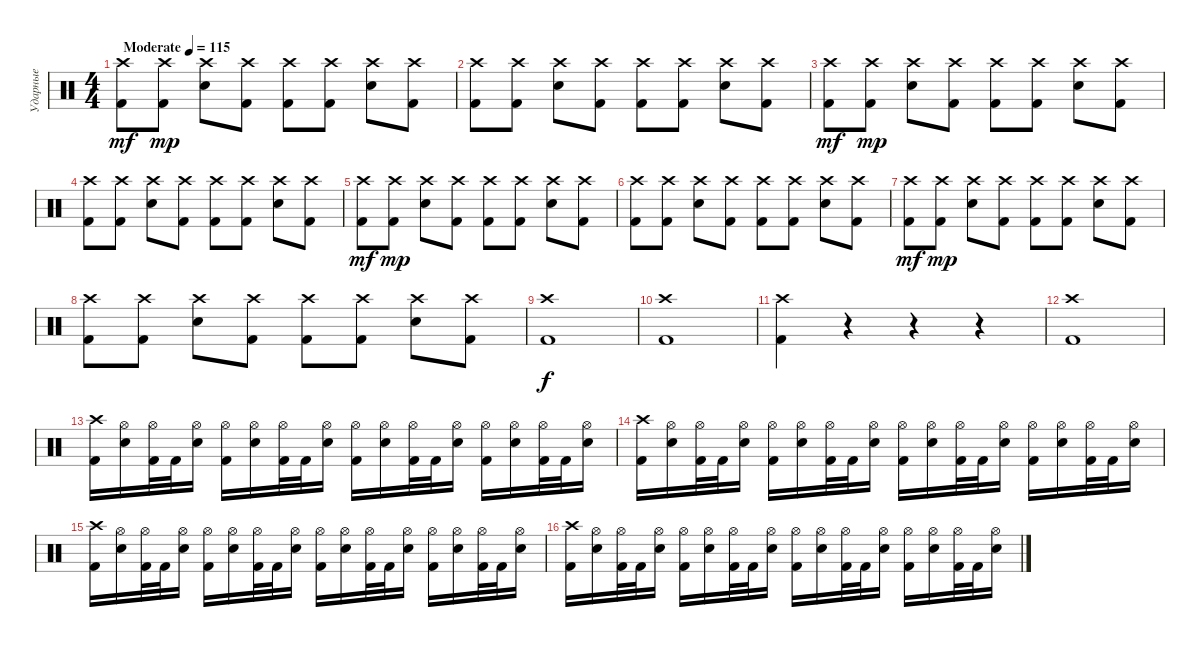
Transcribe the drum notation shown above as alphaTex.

\track ("Ударные" "Ударные") {instrument percussion}
\staff {score}
\articulation defaults
\ts (4 4)
\tempo (115 "Moderate")
\clef neutral
\ks c
("Crash high (hit)" "Kick (hit) 2").8{dy mf} ("Crash high (hit)" "Kick (hit) 2").8{dy mp} ("Crash high (hit)" "Electric Snare (hit)").8 ("Crash high (hit)" "Kick (hit) 2").8 ("Crash high (hit)" "Kick (hit) 2").8 ("Crash high (hit)" "Kick (hit) 2").8 ("Crash high (hit)" "Electric Snare (hit)").8 ("Crash high (hit)" "Kick (hit) 2").8 |
("Crash high (hit)" "Kick (hit) 2").8 ("Crash high (hit)" "Kick (hit) 2").8 ("Crash high (hit)" "Electric Snare (hit)").8 ("Crash high (hit)" "Kick (hit) 2").8 ("Crash high (hit)" "Kick (hit) 2").8 ("Crash high (hit)" "Kick (hit) 2").8 ("Crash high (hit)" "Electric Snare (hit)").8 ("Crash high (hit)" "Kick (hit) 2").8 |
("Crash high (hit)" "Kick (hit) 2").8{dy mf} ("Crash high (hit)" "Kick (hit) 2").8{dy mp} ("Crash high (hit)" "Electric Snare (hit)").8 ("Crash high (hit)" "Kick (hit) 2").8 ("Crash high (hit)" "Kick (hit) 2").8 ("Crash high (hit)" "Kick (hit) 2").8 ("Crash high (hit)" "Electric Snare (hit)").8 ("Crash high (hit)" "Kick (hit) 2").8 |
("Crash high (hit)" "Kick (hit) 2").8 ("Crash high (hit)" "Kick (hit) 2").8 ("Crash high (hit)" "Electric Snare (hit)").8 ("Crash high (hit)" "Kick (hit) 2").8 ("Crash high (hit)" "Kick (hit) 2").8 ("Crash high (hit)" "Kick (hit) 2").8 ("Crash high (hit)" "Electric Snare (hit)").8 ("Crash high (hit)" "Kick (hit) 2").8 |
("Crash high (hit)" "Kick (hit) 2").8{dy mf} ("Crash high (hit)" "Kick (hit) 2").8{dy mp} ("Crash high (hit)" "Electric Snare (hit)").8 ("Crash high (hit)" "Kick (hit) 2").8 ("Crash high (hit)" "Kick (hit) 2").8 ("Crash high (hit)" "Kick (hit) 2").8 ("Crash high (hit)" "Electric Snare (hit)").8 ("Crash high (hit)" "Kick (hit) 2").8 |
("Crash high (hit)" "Kick (hit) 2").8 ("Crash high (hit)" "Kick (hit) 2").8 ("Crash high (hit)" "Electric Snare (hit)").8 ("Crash high (hit)" "Kick (hit) 2").8 ("Crash high (hit)" "Kick (hit) 2").8 ("Crash high (hit)" "Kick (hit) 2").8 ("Crash high (hit)" "Electric Snare (hit)").8 ("Crash high (hit)" "Kick (hit) 2").8 |
("Crash high (hit)" "Kick (hit) 2").8{dy mf} ("Crash high (hit)" "Kick (hit) 2").8{dy mp} ("Crash high (hit)" "Electric Snare (hit)").8 ("Crash high (hit)" "Kick (hit) 2").8 ("Crash high (hit)" "Kick (hit) 2").8 ("Crash high (hit)" "Kick (hit) 2").8 ("Crash high (hit)" "Electric Snare (hit)").8 ("Crash high (hit)" "Kick (hit) 2").8 |
("Crash high (hit)" "Kick (hit) 2").8 ("Crash high (hit)" "Kick (hit) 2").8 ("Crash high (hit)" "Electric Snare (hit)").8 ("Crash high (hit)" "Kick (hit) 2").8 ("Crash high (hit)" "Kick (hit) 2").8 ("Crash high (hit)" "Kick (hit) 2").8 ("Crash high (hit)" "Electric Snare (hit)").8 ("Crash high (hit)" "Kick (hit) 2").8 |
("Crash high (hit)" "Kick (hit) 2").1{dy f} |
("Crash high (hit)" "Kick (hit) 2").1 |
("Crash high (hit)" "Kick (hit) 2").4 r.4 r.4 r.4 |
("Crash high (hit)" "Kick (hit) 2").1 |
("Crash high (hit)" "Kick (hit) 2").16 ("Hi-Hat (open)" "Electric Snare (hit)").16 ("Hi-Hat (open)" "Kick (hit) 2").32 "Kick (hit) 2".32 ("Hi-Hat (open)" "Electric Snare (hit)").16 ("Hi-Hat (open)" "Kick (hit) 2").16 ("Hi-Hat (open)" "Electric Snare (hit)").16 ("Hi-Hat (open)" "Kick (hit) 2").32 "Kick (hit) 2".32 ("Hi-Hat (open)" "Electric Snare (hit)").16 ("Hi-Hat (open)" "Kick (hit) 2").16 ("Hi-Hat (open)" "Electric Snare (hit)").16 ("Hi-Hat (open)" "Kick (hit) 2").32 "Kick (hit) 2".32 ("Hi-Hat (open)" "Electric Snare (hit)").16 ("Hi-Hat (open)" "Kick (hit) 2").16 ("Hi-Hat (open)" "Electric Snare (hit)").16 ("Hi-Hat (open)" "Kick (hit) 2").32 "Kick (hit) 2".32 ("Hi-Hat (open)" "Electric Snare (hit)").16 |
("Crash high (hit)" "Kick (hit) 2").16 ("Hi-Hat (open)" "Electric Snare (hit)").16 ("Hi-Hat (open)" "Kick (hit) 2").32 "Kick (hit) 2".32 ("Hi-Hat (open)" "Electric Snare (hit)").16 ("Hi-Hat (open)" "Kick (hit) 2").16 ("Hi-Hat (open)" "Electric Snare (hit)").16 ("Hi-Hat (open)" "Kick (hit) 2").32 "Kick (hit) 2".32 ("Hi-Hat (open)" "Electric Snare (hit)").16 ("Hi-Hat (open)" "Kick (hit) 2").16 ("Hi-Hat (open)" "Electric Snare (hit)").16 ("Hi-Hat (open)" "Kick (hit) 2").32 "Kick (hit) 2".32 ("Hi-Hat (open)" "Electric Snare (hit)").16 ("Hi-Hat (open)" "Kick (hit) 2").16 ("Hi-Hat (open)" "Electric Snare (hit)").16 ("Hi-Hat (open)" "Kick (hit) 2").32 "Kick (hit) 2".32 ("Hi-Hat (open)" "Electric Snare (hit)").16 |
("Crash high (hit)" "Kick (hit) 2").16 ("Hi-Hat (open)" "Electric Snare (hit)").16 ("Hi-Hat (open)" "Kick (hit) 2").32 "Kick (hit) 2".32 ("Hi-Hat (open)" "Electric Snare (hit)").16 ("Hi-Hat (open)" "Kick (hit) 2").16 ("Hi-Hat (open)" "Electric Snare (hit)").16 ("Hi-Hat (open)" "Kick (hit) 2").32 "Kick (hit) 2".32 ("Hi-Hat (open)" "Electric Snare (hit)").16 ("Hi-Hat (open)" "Kick (hit) 2").16 ("Hi-Hat (open)" "Electric Snare (hit)").16 ("Hi-Hat (open)" "Kick (hit) 2").32 "Kick (hit) 2".32 ("Hi-Hat (open)" "Electric Snare (hit)").16 ("Hi-Hat (open)" "Kick (hit) 2").16 ("Hi-Hat (open)" "Electric Snare (hit)").16 ("Hi-Hat (open)" "Kick (hit) 2").32 "Kick (hit) 2".32 ("Hi-Hat (open)" "Electric Snare (hit)").16 |
("Crash high (hit)" "Kick (hit) 2").16 ("Hi-Hat (open)" "Electric Snare (hit)").16 ("Hi-Hat (open)" "Kick (hit) 2").32 "Kick (hit) 2".32 ("Hi-Hat (open)" "Electric Snare (hit)").16 ("Hi-Hat (open)" "Kick (hit) 2").16 ("Hi-Hat (open)" "Electric Snare (hit)").16 ("Hi-Hat (open)" "Kick (hit) 2").32 "Kick (hit) 2".32 ("Hi-Hat (open)" "Electric Snare (hit)").16 ("Hi-Hat (open)" "Kick (hit) 2").16 ("Hi-Hat (open)" "Electric Snare (hit)").16 ("Hi-Hat (open)" "Kick (hit) 2").32 "Kick (hit) 2".32 ("Hi-Hat (open)" "Electric Snare (hit)").16 ("Hi-Hat (open)" "Kick (hit) 2").16 ("Hi-Hat (open)" "Electric Snare (hit)").16 ("Hi-Hat (open)" "Kick (hit) 2").32 "Kick (hit) 2".32 ("Hi-Hat (open)" "Electric Snare (hit)").16
